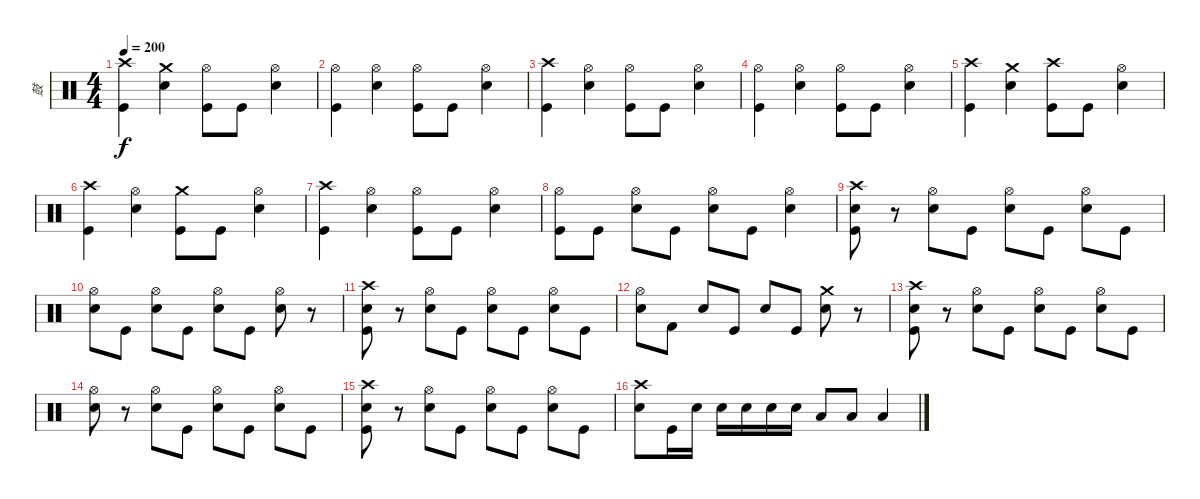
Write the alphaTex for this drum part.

\track ("鼓" "鼓") {instrument percussion}
\staff {score}
\articulation defaults
\ts (4 4)
\tempo 200
\clef neutral
\ks c
("Crash high (hit)" "Kick (hit)").4{dy f} ("Crash medium (hit)" "Snare (hit) 2").4 ("Hi-Hat (open)" "Kick (hit)").8 "Kick (hit)".8 ("Hi-Hat (open)" "Snare (hit) 2").4 |
("Hi-Hat (open)" "Kick (hit)").4 ("Hi-Hat (open)" "Snare (hit) 2").4 ("Hi-Hat (open)" "Kick (hit)").8 "Kick (hit)".8 ("Hi-Hat (open)" "Snare (hit) 2").4 |
("Crash high (hit)" "Kick (hit)").4 ("Hi-Hat (open)" "Snare (hit) 2").4 ("Hi-Hat (open)" "Kick (hit)").8 "Kick (hit)".8 ("Hi-Hat (open)" "Snare (hit) 2").4 |
("Hi-Hat (open)" "Kick (hit)").4 ("Hi-Hat (open)" "Snare (hit) 2").4 ("Hi-Hat (open)" "Kick (hit)").8 "Kick (hit)".8 ("Hi-Hat (open)" "Snare (hit) 2").4 |
("Crash high (hit)" "Kick (hit)").4 ("Crash medium (hit)" "Snare (hit) 2").4 ("Crash high (hit)" "Kick (hit)").8 "Kick (hit)".8 ("Hi-Hat (open)" "Snare (hit) 2").4 |
("Crash high (hit)" "Kick (hit)").4 ("Hi-Hat (open)" "Snare (hit) 2").4 ("Crash medium (hit)" "Kick (hit)").8 "Kick (hit)".8 ("Hi-Hat (open)" "Snare (hit) 2").4 |
("Crash high (hit)" "Kick (hit)").4 ("Hi-Hat (open)" "Snare (hit) 2").4 ("Hi-Hat (open)" "Kick (hit)").8 "Kick (hit)".8 ("Hi-Hat (open)" "Snare (hit) 2").4 |
("Hi-Hat (open)" "Kick (hit)").8 "Kick (hit)".8 ("Hi-Hat (open)" "Snare (hit) 2").8 "Kick (hit)".8 ("Hi-Hat (open)" "Snare (hit) 2").8 "Kick (hit)".8 ("Hi-Hat (open)" "Snare (hit) 2").4 |
("Crash high (hit)" "Snare (hit) 2" "Kick (hit)").8 r.8 ("Hi-Hat (open)" "Snare (hit) 2").8 "Kick (hit)".8 ("Hi-Hat (open)" "Snare (hit) 2").8 "Kick (hit)".8 ("Hi-Hat (open)" "Snare (hit) 2").8 "Kick (hit)".8 |
("Hi-Hat (open)" "Snare (hit) 2").8 "Kick (hit)".8 ("Hi-Hat (open)" "Snare (hit) 2").8 "Kick (hit)".8 ("Hi-Hat (open)" "Snare (hit) 2").8 "Kick (hit)".8 ("Hi-Hat (open)" "Snare (hit) 2").8 r.8 |
("Crash high (hit)" "Snare (hit) 2" "Kick (hit)").8 r.8 ("Hi-Hat (open)" "Snare (hit) 2").8 "Kick (hit)".8 ("Hi-Hat (open)" "Snare (hit) 2").8 "Kick (hit)".8 ("Hi-Hat (open)" "Snare (hit) 2").8 "Kick (hit)".8 |
("Hi-Hat (open)" "Snare (hit) 2").8 "Kick (hit) 2".8 "Snare (hit) 2".8 "Kick (hit)".8 "Snare (hit) 2".8 "Kick (hit)".8 ("Crash medium (hit)" "Snare (hit) 2").8 r.8 |
("Crash high (hit)" "Snare (hit) 2" "Kick (hit)").8 r.8 ("Hi-Hat (open)" "Snare (hit) 2").8 "Kick (hit)".8 ("Hi-Hat (open)" "Snare (hit) 2").8 "Kick (hit)".8 ("Hi-Hat (open)" "Snare (hit) 2").8 "Kick (hit)".8 |
("Hi-Hat (open)" "Snare (hit) 2").8 r.8 ("Hi-Hat (open)" "Snare (hit) 2").8 "Kick (hit)".8 ("Hi-Hat (open)" "Snare (hit) 2").8 "Kick (hit)".8 ("Hi-Hat (open)" "Snare (hit) 2").8 "Kick (hit)".8 |
("Crash high (hit)" "Snare (hit) 2" "Kick (hit)").8 r.8 ("Hi-Hat (open)" "Snare (hit) 2").8 "Kick (hit)".8 ("Hi-Hat (open)" "Snare (hit) 2").8 "Kick (hit)".8 ("Hi-Hat (open)" "Snare (hit) 2").8 "Kick (hit)".8 |
("Crash high (hit)" "Snare (hit) 2").8 "Kick (hit)".16 "Snare (hit) 2".16 "Snare (hit) 2".16 "Snare (hit) 2".16 "Snare (hit) 2".16 "Snare (hit) 2".16 "Low Tom (hit)".8 "Low Tom (hit)".8 "Low Floor Tom (hit)".4
